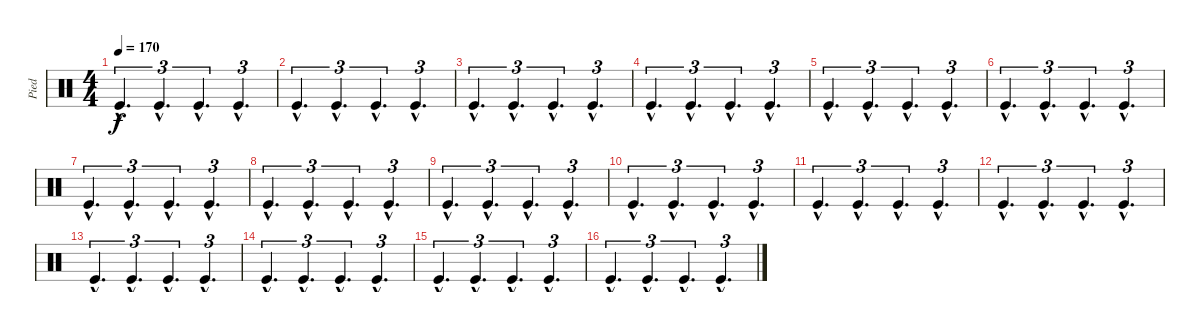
\track ("Pied" "Pied") {instrument percussion}
\staff {score}
\articulation defaults
\ts (4 4)
\tempo 170
\clef neutral
\ks c "Kick (hit)"{hac}.4{d tu (3 2) dy f} "Kick (hit)"{hac}.4{d tu (3 2)} "Kick (hit)"{hac}.4{d tu (3 2)} "Kick (hit)"{hac}.4{d tu (3 2)}
|
"Kick (hit)"{hac}.4{d tu (3 2)} "Kick (hit)"{hac}.4{d tu (3 2)} "Kick (hit)"{hac}.4{d tu (3 2)} "Kick (hit)"{hac}.4{d tu (3 2)} |
"Kick (hit)"{hac}.4{d tu (3 2)} "Kick (hit)"{hac}.4{d tu (3 2)} "Kick (hit)"{hac}.4{d tu (3 2)} "Kick (hit)"{hac}.4{d tu (3 2)} |
"Kick (hit)"{hac}.4{d tu (3 2)} "Kick (hit)"{hac}.4{d tu (3 2)} "Kick (hit)"{hac}.4{d tu (3 2)} "Kick (hit)"{hac}.4{d tu (3 2)} |
"Kick (hit)"{hac}.4{d tu (3 2)} "Kick (hit)"{hac}.4{d tu (3 2)} "Kick (hit)"{hac}.4{d tu (3 2)} "Kick (hit)"{hac}.4{d tu (3 2)} |
"Kick (hit)"{hac}.4{d tu (3 2)} "Kick (hit)"{hac}.4{d tu (3 2)} "Kick (hit)"{hac}.4{d tu (3 2)} "Kick (hit)"{hac}.4{d tu (3 2)} |
"Kick (hit)"{hac}.4{d tu (3 2)} "Kick (hit)"{hac}.4{d tu (3 2)} "Kick (hit)"{hac}.4{d tu (3 2)} "Kick (hit)"{hac}.4{d tu (3 2)} |
"Kick (hit)"{hac}.4{d tu (3 2)} "Kick (hit)"{hac}.4{d tu (3 2)} "Kick (hit)"{hac}.4{d tu (3 2)} "Kick (hit)"{hac}.4{d tu (3 2)} |
"Kick (hit)"{hac}.4{d tu (3 2)} "Kick (hit)"{hac}.4{d tu (3 2)} "Kick (hit)"{hac}.4{d tu (3 2)} "Kick (hit)"{hac}.4{d tu (3 2)} |
"Kick (hit)"{hac}.4{d tu (3 2)} "Kick (hit)"{hac}.4{d tu (3 2)} "Kick (hit)"{hac}.4{d tu (3 2)} "Kick (hit)"{hac}.4{d tu (3 2)} |
"Kick (hit)"{hac}.4{d tu (3 2)} "Kick (hit)"{hac}.4{d tu (3 2)} "Kick (hit)"{hac}.4{d tu (3 2)} "Kick (hit)"{hac}.4{d tu (3 2)} |
"Kick (hit)"{hac}.4{d tu (3 2)} "Kick (hit)"{hac}.4{d tu (3 2)} "Kick (hit)"{hac}.4{d tu (3 2)} "Kick (hit)"{hac}.4{d tu (3 2)} |
"Kick (hit)"{hac}.4{d tu (3 2)} "Kick (hit)"{hac}.4{d tu (3 2)} "Kick (hit)"{hac}.4{d tu (3 2)} "Kick (hit)"{hac}.4{d tu (3 2)} |
"Kick (hit)"{hac}.4{d tu (3 2)} "Kick (hit)"{hac}.4{d tu (3 2)} "Kick (hit)"{hac}.4{d tu (3 2)} "Kick (hit)"{hac}.4{d tu (3 2)} |
"Kick (hit)"{hac}.4{d tu (3 2)} "Kick (hit)"{hac}.4{d tu (3 2)} "Kick (hit)"{hac}.4{d tu (3 2)} "Kick (hit)"{hac}.4{d tu (3 2)} |
"Kick (hit)"{hac}.4{d tu (3 2)} "Kick (hit)"{hac}.4{d tu (3 2)} "Kick (hit)"{hac}.4{d tu (3 2)} "Kick (hit)"{hac}.4{d tu (3 2)}
